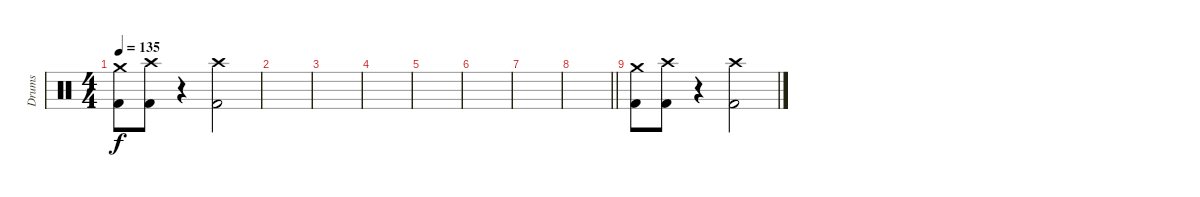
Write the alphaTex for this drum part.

\track ("Drums" "Drums") {instrument percussion}
\staff {score}
\articulation defaults
\ts (4 4)
\tempo 135
\clef neutral
\ks c
("Crash medium (hit)" "Kick (hit) 2").8{dy f} ("Crash high (hit)" "Kick (hit) 2").8 r.4 ("Crash high (hit)" "Kick (hit) 2").2 |
|
|
|
|
|
|
\barLineRight lightlight
|
("Crash medium (hit)" "Kick (hit) 2").8 ("Crash high (hit)" "Kick (hit) 2").8 r.4 ("Crash high (hit)" "Kick (hit) 2").2
